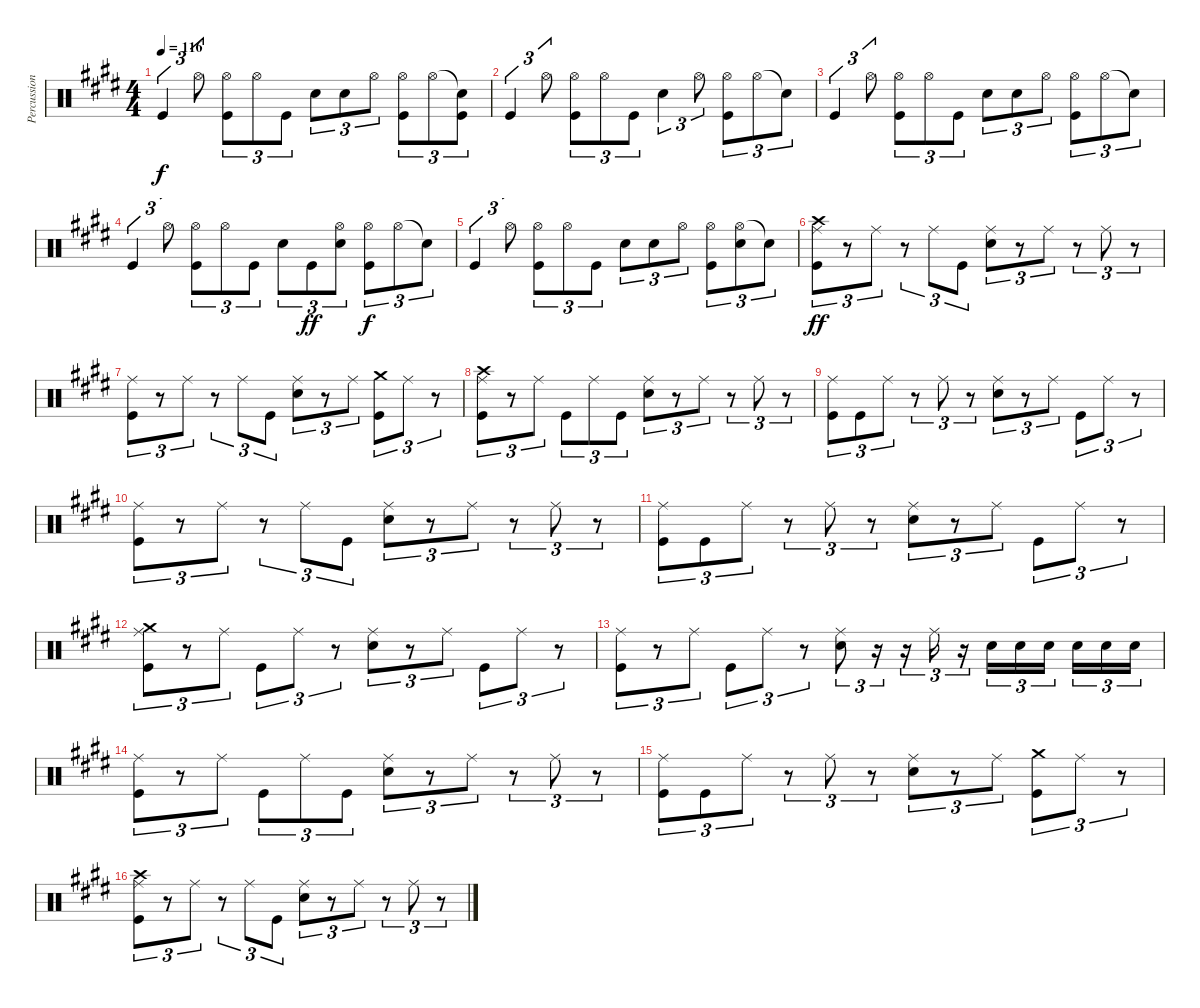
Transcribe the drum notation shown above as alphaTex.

\track ("Percussion" "Percussion") {instrument percussion}
\staff {score}
\articulation defaults
\ts (4 4)
\tempo 116
\clef neutral
\ks c#minor "Kick (hit)".4{tu (3 2) dy f} "Hi-Hat (open)".8{tu (3 2)}
("Hi-Hat (open)" "Kick (hit)").8{tu (3 2)} "Hi-Hat (open)".8{tu (3 2)} "Kick (hit)".8{tu (3 2)} "Snare (hit) 2".8{tu (3 2)} "Snare (hit) 2".8{tu (3 2)} "Hi-Hat (open)".8{tu (3 2)} ("Hi-Hat (open)" "Kick (hit)").8{tu (3 2)} "Hi-Hat (open)".8{tu (3 2)} ("Snare (hit)"{t} "Kick (hit)").8{tu (3 2)} |
"Kick (hit)".4{tu (3 2)} "Hi-Hat (open)".8{tu (3 2)} ("Hi-Hat (open)" "Kick (hit)").8{tu (3 2)} "Hi-Hat (open)".8{tu (3 2)} "Kick (hit)".8{tu (3 2)} "Snare (hit) 2".4{tu (3 2)} "Hi-Hat (open)".8{tu (3 2)} ("Hi-Hat (open)" "Kick (hit)").8{tu (3 2)} "Hi-Hat (open)".8{tu (3 2)} "Snare (hit)"{t}.8{tu (3 2)} |
"Kick (hit)".4{tu (3 2)} "Hi-Hat (open)".8{tu (3 2)} ("Hi-Hat (open)" "Kick (hit)").8{tu (3 2)} "Hi-Hat (open)".8{tu (3 2)} "Kick (hit)".8{tu (3 2)} "Snare (hit) 2".8{tu (3 2)} "Snare (hit) 2".8{tu (3 2)} "Hi-Hat (open)".8{tu (3 2)} ("Hi-Hat (open)" "Kick (hit)").8{tu (3 2)} "Hi-Hat (open)".8{tu (3 2)} "Snare (hit)"{t}.8{tu (3 2)} |
"Kick (hit)".4{tu (3 2)} "Hi-Hat (open)".8{tu (3 2)} ("Hi-Hat (open)" "Kick (hit)").8{tu (3 2)} "Hi-Hat (open)".8{tu (3 2)} "Kick (hit)".8{tu (3 2)} "Snare (hit) 2".8{tu (3 2)} "Kick (hit)".8{tu (3 2) dy ff} ("Hi-Hat (open)" "Snare (hit) 2").8{tu (3 2)} ("Hi-Hat (open)" "Kick (hit)").8{tu (3 2) dy f} "Hi-Hat (open)".8{tu (3 2)} "Snare (hit)"{t}.8{tu (3 2)} |
"Kick (hit)".4{tu (3 2)} "Hi-Hat (open)".8{tu (3 2)} ("Hi-Hat (open)" "Kick (hit)").8{tu (3 2)} "Hi-Hat (open)".8{tu (3 2)} "Kick (hit)".8{tu (3 2)} "Snare (hit) 2".8{tu (3 2)} "Snare (hit) 2".8{tu (3 2)} "Hi-Hat (open)".8{tu (3 2)} ("Hi-Hat (open)" "Kick (hit)").8{tu (3 2)} ("Hi-Hat (open)" "Snare (hit) 2").8{tu (3 2)} "Snare (hit)"{t}.8{tu (3 2)} |
("Crash high (hit)" "Ride (middle)" "Kick (hit)").8{tu (3 2) dy ff} r.8{tu (3 2)} "Ride (middle)".8{tu (3 2)} r.8{tu (3 2)} "Ride (middle)".8{tu (3 2)} "Kick (hit)".8{tu (3 2)} ("Ride (middle)" "Snare (hit) 2").8{tu (3 2)} r.8{tu (3 2)} "Ride (middle)".8{tu (3 2)} r.8{tu (3 2)} "Ride (middle)".8{tu (3 2)} r.8{tu (3 2)} |
("Ride (middle)" "Kick (hit)").8{tu (3 2)} r.8{tu (3 2)} "Ride (middle)".8{tu (3 2)} r.8{tu (3 2)} "Ride (middle)".8{tu (3 2)} "Kick (hit)".8{tu (3 2)} ("Ride (middle)" "Snare (hit) 2").8{tu (3 2)} r.8{tu (3 2)} "Ride (middle)".8{tu (3 2)} ("Crash medium (hit)" "Kick (hit)").8{tu (3 2)} "Ride (middle)".8{tu (3 2)} r.8{tu (3 2)} |
("Crash high (hit)" "Ride (middle)" "Kick (hit)").8{tu (3 2)} r.8{tu (3 2)} "Ride (middle)".8{tu (3 2)} "Kick (hit)".8{tu (3 2)} "Ride (middle)".8{tu (3 2)} "Kick (hit)".8{tu (3 2)} ("Ride (middle)" "Snare (hit) 2").8{tu (3 2)} r.8{tu (3 2)} "Ride (middle)".8{tu (3 2)} r.8{tu (3 2)} "Ride (middle)".8{tu (3 2)} r.8{tu (3 2)} |
("Ride (middle)" "Kick (hit)").8{tu (3 2)} "Kick (hit)".8{tu (3 2)} "Ride (middle)".8{tu (3 2)} r.8{tu (3 2)} "Ride (middle)".8{tu (3 2)} r.8{tu (3 2)} ("Ride (middle)" "Snare (hit) 2").8{tu (3 2)} r.8{tu (3 2)} "Ride (middle)".8{tu (3 2)} "Kick (hit)".8{tu (3 2)} "Ride (middle)".8{tu (3 2)} r.8{tu (3 2)} |
("Ride (middle)" "Kick (hit)").8{tu (3 2)} r.8{tu (3 2)} "Ride (middle)".8{tu (3 2)} r.8{tu (3 2)} "Ride (middle)".8{tu (3 2)} "Kick (hit)".8{tu (3 2)} ("Ride (middle)" "Snare (hit) 2").8{tu (3 2)} r.8{tu (3 2)} "Ride (middle)".8{tu (3 2)} r.8{tu (3 2)} "Ride (middle)".8{tu (3 2)} r.8{tu (3 2)} |
("Ride (middle)" "Kick (hit)").8{tu (3 2)} "Kick (hit)".8{tu (3 2)} "Ride (middle)".8{tu (3 2)} r.8{tu (3 2)} "Ride (middle)".8{tu (3 2)} r.8{tu (3 2)} ("Ride (middle)" "Snare (hit) 2").8{tu (3 2)} r.8{tu (3 2)} "Ride (middle)".8{tu (3 2)} "Kick (hit)".8{tu (3 2)} "Ride (middle)".8{tu (3 2)} r.8{tu (3 2)} |
("Crash medium (hit)" "Ride (middle)" "Kick (hit)").8{tu (3 2)} r.8{tu (3 2)} "Ride (middle)".8{tu (3 2)} "Kick (hit)".8{tu (3 2)} "Ride (middle)".8{tu (3 2)} r.8{tu (3 2)} ("Ride (middle)" "Snare (hit) 2").8{tu (3 2)} r.8{tu (3 2)} "Ride (middle)".8{tu (3 2)} "Kick (hit)".8{tu (3 2)} "Ride (middle)".8{tu (3 2)} r.8{tu (3 2)} |
("Ride (middle)" "Kick (hit)").8{tu (3 2)} r.8{tu (3 2)} "Ride (middle)".8{tu (3 2)} "Kick (hit)".8{tu (3 2)} "Ride (middle)".8{tu (3 2)} r.8{tu (3 2)} ("Ride (middle)" "Snare (hit) 2").8{tu (3 2)} r.16{tu (3 2)} r.16{tu (3 2)} "Ride (middle)".16{tu (3 2)} r.16{tu (3 2)} "Snare (hit) 2".16{tu (3 2)} "Snare (hit) 2".16{tu (3 2)} "Snare (hit) 2".16{tu (3 2) beam splitsecondary} "Snare (hit) 2".16{tu (3 2)} "Snare (hit) 2".16{tu (3 2)} "Snare (hit) 2".16{tu (3 2)} |
("Ride (middle)" "Kick (hit)").8{tu (3 2)} r.8{tu (3 2)} "Ride (middle)".8{tu (3 2)} "Kick (hit)".8{tu (3 2)} "Ride (middle)".8{tu (3 2)} "Kick (hit)".8{tu (3 2)} ("Ride (middle)" "Snare (hit) 2").8{tu (3 2)} r.8{tu (3 2)} "Ride (middle)".8{tu (3 2)} r.8{tu (3 2)} "Ride (middle)".8{tu (3 2)} r.8{tu (3 2)} |
("Ride (middle)" "Kick (hit)").8{tu (3 2)} "Kick (hit)".8{tu (3 2)} "Ride (middle)".8{tu (3 2)} r.8{tu (3 2)} "Ride (middle)".8{tu (3 2)} r.8{tu (3 2)} ("Ride (middle)" "Snare (hit) 2").8{tu (3 2)} r.8{tu (3 2)} "Ride (middle)".8{tu (3 2)} ("Crash medium (hit)" "Kick (hit)").8{tu (3 2)} "Ride (middle)".8{tu (3 2)} r.8{tu (3 2)} |
("Crash high (hit)" "Ride (middle)" "Kick (hit)").8{tu (3 2)} r.8{tu (3 2)} "Ride (middle)".8{tu (3 2)} r.8{tu (3 2)} "Ride (middle)".8{tu (3 2)} "Kick (hit)".8{tu (3 2)} ("Ride (middle)" "Snare (hit) 2").8{tu (3 2)} r.8{tu (3 2)} "Ride (middle)".8{tu (3 2)} r.8{tu (3 2)} "Ride (middle)".8{tu (3 2)} r.8{tu (3 2)}
